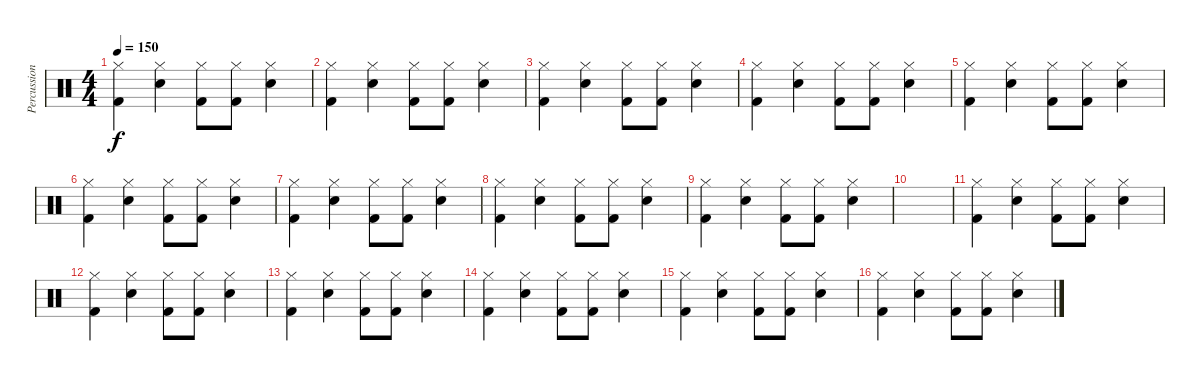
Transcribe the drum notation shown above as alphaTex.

\track ("Percussion" "Percussion") {instrument percussion}
\staff {score}
\articulation defaults
\ts (4 4)
\tempo 150
\clef neutral
\ks c
("Hi-Hat (closed)" "Kick (hit) 2").4{dy f} ("Hi-Hat (closed)" "Electric Snare (hit)").4 ("Hi-Hat (closed)" "Kick (hit) 2").8 ("Hi-Hat (closed)" "Kick (hit) 2").8 ("Hi-Hat (closed)" "Electric Snare (hit)").4 |
("Hi-Hat (closed)" "Kick (hit) 2").4 ("Hi-Hat (closed)" "Electric Snare (hit)").4 ("Hi-Hat (closed)" "Kick (hit) 2").8 ("Hi-Hat (closed)" "Kick (hit) 2").8 ("Hi-Hat (closed)" "Electric Snare (hit)").4 |
("Hi-Hat (closed)" "Kick (hit) 2").4 ("Hi-Hat (closed)" "Electric Snare (hit)").4 ("Hi-Hat (closed)" "Kick (hit) 2").8 ("Hi-Hat (closed)" "Kick (hit) 2").8 ("Hi-Hat (closed)" "Electric Snare (hit)").4 |
("Hi-Hat (closed)" "Kick (hit) 2").4 ("Hi-Hat (closed)" "Electric Snare (hit)").4 ("Hi-Hat (closed)" "Kick (hit) 2").8 ("Hi-Hat (closed)" "Kick (hit) 2").8 ("Hi-Hat (closed)" "Electric Snare (hit)").4 |
("Hi-Hat (closed)" "Kick (hit) 2").4 ("Hi-Hat (closed)" "Electric Snare (hit)").4 ("Hi-Hat (closed)" "Kick (hit) 2").8 ("Hi-Hat (closed)" "Kick (hit) 2").8 ("Hi-Hat (closed)" "Electric Snare (hit)").4 |
("Hi-Hat (closed)" "Kick (hit) 2").4 ("Hi-Hat (closed)" "Electric Snare (hit)").4 ("Hi-Hat (closed)" "Kick (hit) 2").8 ("Hi-Hat (closed)" "Kick (hit) 2").8 ("Hi-Hat (closed)" "Electric Snare (hit)").4 |
("Hi-Hat (closed)" "Kick (hit) 2").4 ("Hi-Hat (closed)" "Electric Snare (hit)").4 ("Hi-Hat (closed)" "Kick (hit) 2").8 ("Hi-Hat (closed)" "Kick (hit) 2").8 ("Hi-Hat (closed)" "Electric Snare (hit)").4 |
("Hi-Hat (closed)" "Kick (hit) 2").4 ("Hi-Hat (closed)" "Electric Snare (hit)").4 ("Hi-Hat (closed)" "Kick (hit) 2").8 ("Hi-Hat (closed)" "Kick (hit) 2").8 ("Hi-Hat (closed)" "Electric Snare (hit)").4 |
("Hi-Hat (closed)" "Kick (hit) 2").4 ("Hi-Hat (closed)" "Electric Snare (hit)").4 ("Hi-Hat (closed)" "Kick (hit) 2").8 ("Hi-Hat (closed)" "Kick (hit) 2").8 ("Hi-Hat (closed)" "Electric Snare (hit)").4 |
|
("Hi-Hat (closed)" "Kick (hit) 2").4 ("Hi-Hat (closed)" "Electric Snare (hit)").4 ("Hi-Hat (closed)" "Kick (hit) 2").8 ("Hi-Hat (closed)" "Kick (hit) 2").8 ("Hi-Hat (closed)" "Electric Snare (hit)").4 |
("Hi-Hat (closed)" "Kick (hit) 2").4 ("Hi-Hat (closed)" "Electric Snare (hit)").4 ("Hi-Hat (closed)" "Kick (hit) 2").8 ("Hi-Hat (closed)" "Kick (hit) 2").8 ("Hi-Hat (closed)" "Electric Snare (hit)").4 |
("Hi-Hat (closed)" "Kick (hit) 2").4 ("Hi-Hat (closed)" "Electric Snare (hit)").4 ("Hi-Hat (closed)" "Kick (hit) 2").8 ("Hi-Hat (closed)" "Kick (hit) 2").8 ("Hi-Hat (closed)" "Electric Snare (hit)").4 |
("Hi-Hat (closed)" "Kick (hit) 2").4 ("Hi-Hat (closed)" "Electric Snare (hit)").4 ("Hi-Hat (closed)" "Kick (hit) 2").8 ("Hi-Hat (closed)" "Kick (hit) 2").8 ("Hi-Hat (closed)" "Electric Snare (hit)").4 |
("Hi-Hat (closed)" "Kick (hit) 2").4 ("Hi-Hat (closed)" "Electric Snare (hit)").4 ("Hi-Hat (closed)" "Kick (hit) 2").8 ("Hi-Hat (closed)" "Kick (hit) 2").8 ("Hi-Hat (closed)" "Electric Snare (hit)").4 |
("Hi-Hat (closed)" "Kick (hit) 2").4 ("Hi-Hat (closed)" "Electric Snare (hit)").4 ("Hi-Hat (closed)" "Kick (hit) 2").8 ("Hi-Hat (closed)" "Kick (hit) 2").8 ("Hi-Hat (closed)" "Electric Snare (hit)").4
